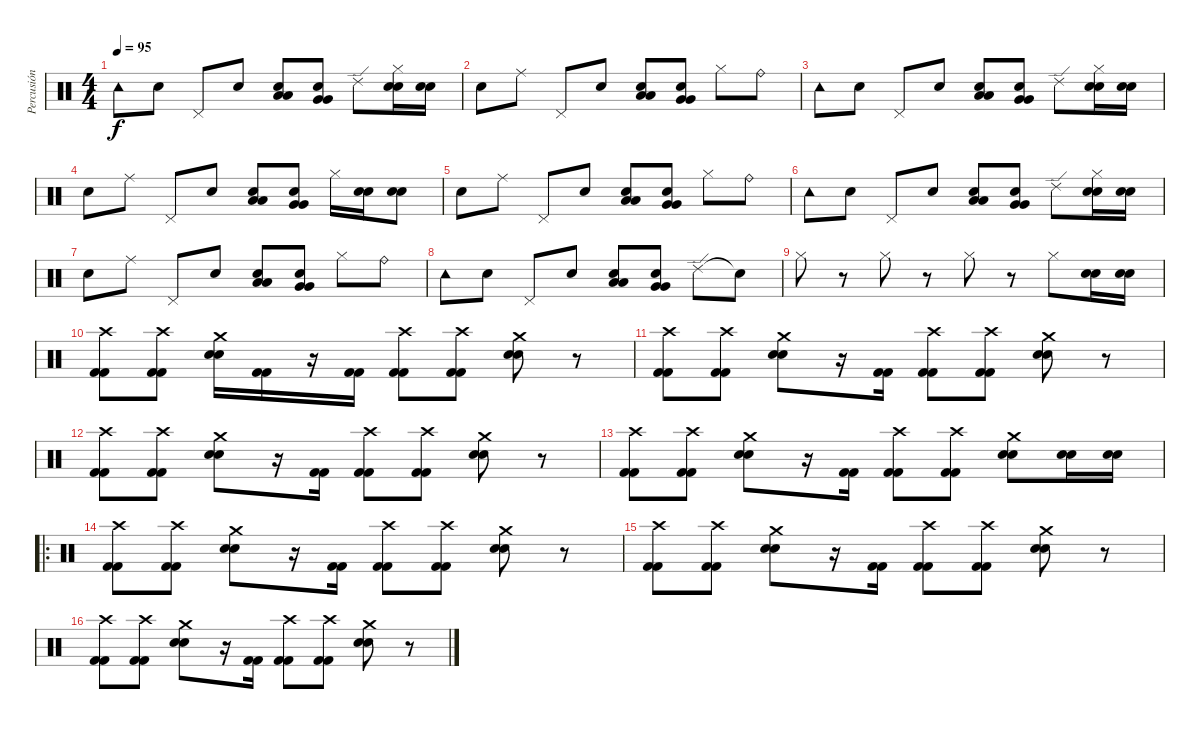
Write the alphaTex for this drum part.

\track ("Percusión" "Percusión") {instrument percussion}
\staff {score}
\articulation defaults
\ts (4 4)
\tempo 95
\clef neutral
\ks c "Tambourine (hit)".8{dy f} "Snare (hit)".8 "Pedal Hi-Hat (hit)".8 "Snare (hit)".8
("Snare (hit)" "Low Tom (hit)" "Low Tom (hit)").8 ("Snare (hit)" "Very Low Tom (hit)" "Very Low Tom (hit)").8 "Ride (edge) 2".8 ("Hi-Hat (closed)" "Electric Snare (hit)" "Electric Snare (hit)").16 ("Electric Snare (hit)" "Electric Snare (hit)").16 |
"Snare (hit)".8 "Ride (middle)".8 "Pedal Hi-Hat (hit)".8 "Snare (hit)".8 ("Snare (hit)" "Low Tom (hit)" "Low Tom (hit)").8 ("Snare (hit)" "Very Low Tom (hit)" "Very Low Tom (hit)").8 "Hi-Hat (closed)".8 "Ride (bell)".8 |
"Tambourine (hit)".8 "Snare (hit)".8 "Pedal Hi-Hat (hit)".8 "Snare (hit)".8 ("Snare (hit)" "Low Tom (hit)" "Low Tom (hit)").8 ("Snare (hit)" "Very Low Tom (hit)" "Very Low Tom (hit)").8 "Ride (edge) 2".8 ("Hi-Hat (closed)" "Electric Snare (hit)" "Electric Snare (hit)").16 ("Electric Snare (hit)" "Electric Snare (hit)").16 |
"Snare (hit)".8 "Ride (middle)".8 "Pedal Hi-Hat (hit)".8 "Snare (hit)".8 ("Snare (hit)" "Low Tom (hit)" "Low Tom (hit)").8 ("Snare (hit)" "Very Low Tom (hit)" "Very Low Tom (hit)").8 "Hi-Hat (closed)".16 ("Electric Snare (hit)" "Electric Snare (hit)").16 ("Electric Snare (hit)" "Electric Snare (hit)").8 |
"Snare (hit)".8 "Ride (middle)".8 "Pedal Hi-Hat (hit)".8 "Snare (hit)".8 ("Snare (hit)" "Low Tom (hit)" "Low Tom (hit)").8 ("Snare (hit)" "Very Low Tom (hit)" "Very Low Tom (hit)").8 "Hi-Hat (closed)".8 "Ride (bell)".8 |
"Tambourine (hit)".8 "Snare (hit)".8 "Pedal Hi-Hat (hit)".8 "Snare (hit)".8 ("Snare (hit)" "Low Tom (hit)" "Low Tom (hit)").8 ("Snare (hit)" "Very Low Tom (hit)" "Very Low Tom (hit)").8 "Ride (edge) 2".8 ("Hi-Hat (closed)" "Electric Snare (hit)" "Electric Snare (hit)").16 ("Electric Snare (hit)" "Electric Snare (hit)").16 |
"Snare (hit)".8 "Ride (middle)".8 "Pedal Hi-Hat (hit)".8 "Snare (hit)".8 ("Snare (hit)" "Low Tom (hit)" "Low Tom (hit)").8 ("Snare (hit)" "Very Low Tom (hit)" "Very Low Tom (hit)").8 "Hi-Hat (closed)".8 "Ride (bell)".8 |
"Tambourine (hit)".8 "Snare (hit)".8 "Pedal Hi-Hat (hit)".8 "Snare (hit)".8 ("Snare (hit)" "Low Tom (hit)" "Low Tom (hit)").8 ("Snare (hit)" "Very Low Tom (hit)" "Very Low Tom (hit)").8 "Ride (edge) 2".8 "Snare (hit)"{t}.8 |
"Hi-Hat (closed)".8 r.8 "Hi-Hat (closed)".8 r.8 "Hi-Hat (closed)".8 r.8 "Hi-Hat (closed)".8 ("Electric Snare (hit)" "Electric Snare (hit)").16 ("Electric Snare (hit)" "Electric Snare (hit)").16 |
("Crash high (hit)" "Kick (hit) 2" "Kick (hit) 2").8 ("Crash high (hit)" "Kick (hit) 2" "Kick (hit) 2").8 ("Crash medium (hit)" "Electric Snare (hit)" "Electric Snare (hit)").16 ("Kick (hit) 2" "Kick (hit) 2").16 r.16 ("Kick (hit) 2" "Kick (hit) 2").16 ("Crash high (hit)" "Kick (hit) 2" "Kick (hit) 2").8 ("Crash high (hit)" "Kick (hit) 2" "Kick (hit) 2").8 ("Crash medium (hit)" "Electric Snare (hit)" "Electric Snare (hit)").8 r.8 |
("Crash high (hit)" "Kick (hit) 2" "Kick (hit) 2").8 ("Crash high (hit)" "Kick (hit) 2" "Kick (hit) 2").8 ("Crash medium (hit)" "Electric Snare (hit)" "Electric Snare (hit)").8 r.16 ("Kick (hit) 2" "Kick (hit) 2").16 ("Crash high (hit)" "Kick (hit) 2" "Kick (hit) 2").8 ("Crash high (hit)" "Kick (hit) 2" "Kick (hit) 2").8 ("Crash medium (hit)" "Electric Snare (hit)" "Electric Snare (hit)").8 r.8 |
("Crash high (hit)" "Kick (hit) 2" "Kick (hit) 2").8 ("Crash high (hit)" "Kick (hit) 2" "Kick (hit) 2").8 ("Crash medium (hit)" "Electric Snare (hit)" "Electric Snare (hit)").8 r.16 ("Kick (hit) 2" "Kick (hit) 2").16 ("Crash high (hit)" "Kick (hit) 2" "Kick (hit) 2").8 ("Crash high (hit)" "Kick (hit) 2" "Kick (hit) 2").8 ("Crash medium (hit)" "Electric Snare (hit)" "Electric Snare (hit)").8 r.8 |
("Crash high (hit)" "Kick (hit) 2" "Kick (hit) 2").8 ("Crash high (hit)" "Kick (hit) 2" "Kick (hit) 2").8 ("Crash medium (hit)" "Electric Snare (hit)" "Electric Snare (hit)").8 r.16 ("Kick (hit) 2" "Kick (hit) 2").16 ("Crash high (hit)" "Kick (hit) 2" "Kick (hit) 2").8 ("Crash high (hit)" "Kick (hit) 2" "Kick (hit) 2").8 ("Crash medium (hit)" "Electric Snare (hit)" "Electric Snare (hit)").8 ("Electric Snare (hit)" "Electric Snare (hit)").16 ("Electric Snare (hit)" "Electric Snare (hit)").16 |
\ro
("Crash high (hit)" "Kick (hit) 2" "Kick (hit) 2").8 ("Crash high (hit)" "Kick (hit) 2" "Kick (hit) 2").8 ("Crash medium (hit)" "Electric Snare (hit)" "Electric Snare (hit)").8 r.16 ("Kick (hit) 2" "Kick (hit) 2").16 ("Crash high (hit)" "Kick (hit) 2" "Kick (hit) 2").8 ("Crash high (hit)" "Kick (hit) 2" "Kick (hit) 2").8 ("Crash medium (hit)" "Electric Snare (hit)" "Electric Snare (hit)").8 r.8 |
("Crash high (hit)" "Kick (hit) 2" "Kick (hit) 2").8 ("Crash high (hit)" "Kick (hit) 2" "Kick (hit) 2").8 ("Crash medium (hit)" "Electric Snare (hit)" "Electric Snare (hit)").8 r.16 ("Kick (hit) 2" "Kick (hit) 2").16 ("Crash high (hit)" "Kick (hit) 2" "Kick (hit) 2").8 ("Crash high (hit)" "Kick (hit) 2" "Kick (hit) 2").8 ("Crash medium (hit)" "Electric Snare (hit)" "Electric Snare (hit)").8 r.8 |
("Crash high (hit)" "Kick (hit) 2" "Kick (hit) 2").8 ("Crash high (hit)" "Kick (hit) 2" "Kick (hit) 2").8 ("Crash medium (hit)" "Electric Snare (hit)" "Electric Snare (hit)").8 r.16 ("Kick (hit) 2" "Kick (hit) 2").16 ("Crash high (hit)" "Kick (hit) 2" "Kick (hit) 2").8 ("Crash high (hit)" "Kick (hit) 2" "Kick (hit) 2").8 ("Crash medium (hit)" "Electric Snare (hit)" "Electric Snare (hit)").8 r.8
